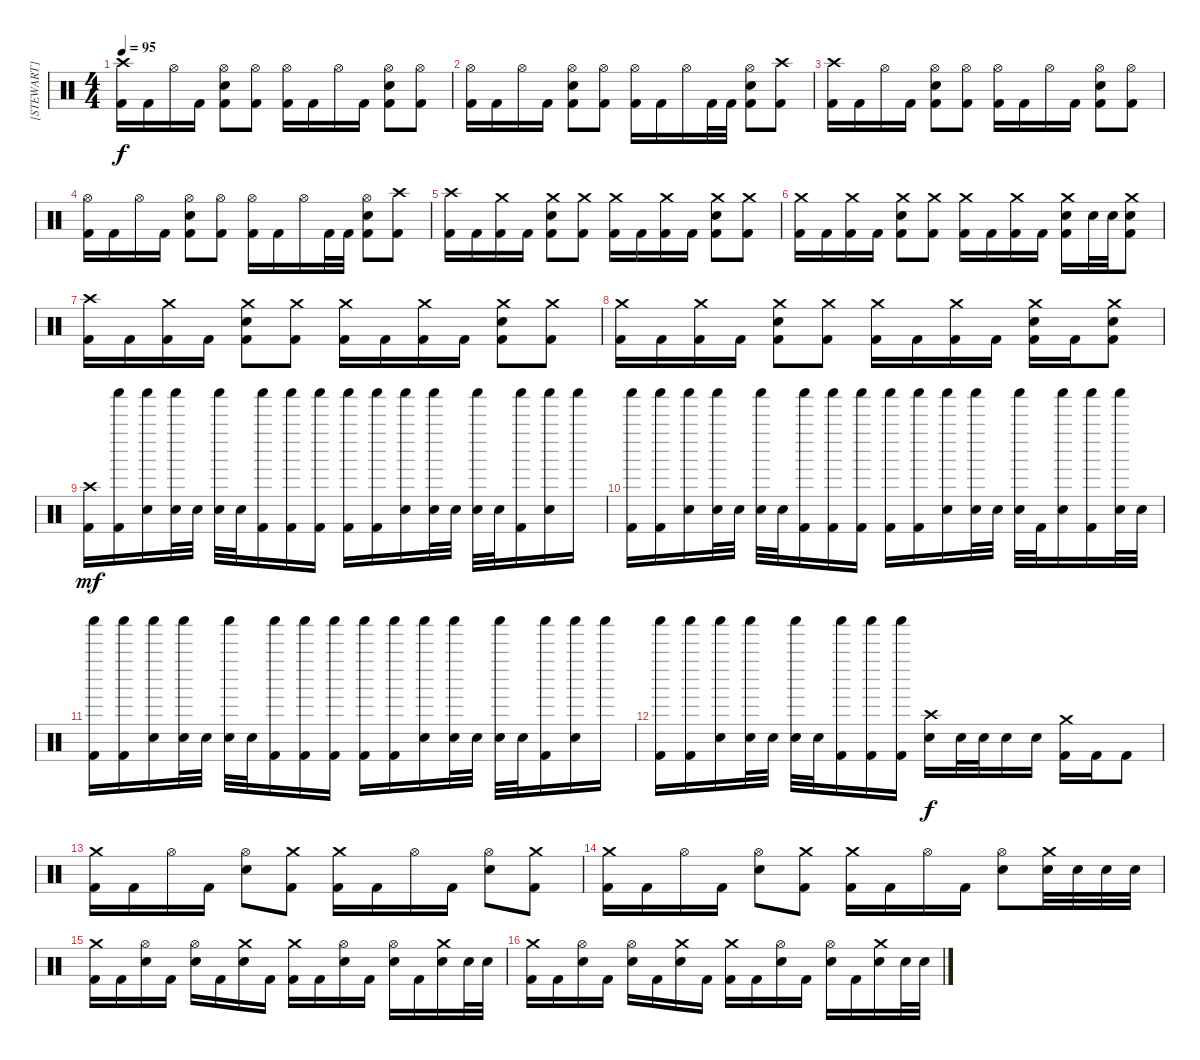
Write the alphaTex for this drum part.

\track ("[STEWART]" "[STEWART]") {instrument percussion}
\staff {score}
\articulation defaults
\ts (4 4)
\tempo 95
\clef neutral
\ks c
("Crash high (hit)" "Kick (hit) 2").16{dy f} "Kick (hit) 2".16 "Hi-Hat (open)".16 "Kick (hit) 2".16 ("Hi-Hat (open)" "Electric Snare (hit)" "Kick (hit) 2").8 ("Hi-Hat (open)" "Kick (hit) 2").8 ("Hi-Hat (open)" "Kick (hit) 2").16 "Kick (hit) 2".16 "Hi-Hat (open)".16 "Kick (hit) 2".16 ("Hi-Hat (open)" "Electric Snare (hit)" "Kick (hit) 2").8 ("Hi-Hat (open)" "Kick (hit) 2").8 |
("Hi-Hat (open)" "Kick (hit) 2").16 "Kick (hit) 2".16 "Hi-Hat (open)".16 "Kick (hit) 2".16 ("Hi-Hat (open)" "Electric Snare (hit)" "Kick (hit) 2").8 ("Hi-Hat (open)" "Kick (hit) 2").8 ("Hi-Hat (open)" "Kick (hit) 2").16 "Kick (hit) 2".16 "Hi-Hat (open)".16 "Kick (hit) 2".32 "Kick (hit) 2".32 ("Hi-Hat (open)" "Electric Snare (hit)" "Kick (hit) 2").8 ("Crash high (hit)" "Kick (hit) 2").8 |
("Crash high (hit)" "Kick (hit) 2").16 "Kick (hit) 2".16 "Hi-Hat (open)".16 "Kick (hit) 2".16 ("Hi-Hat (open)" "Electric Snare (hit)" "Kick (hit) 2").8 ("Hi-Hat (open)" "Kick (hit) 2").8 ("Hi-Hat (open)" "Kick (hit) 2").16 "Kick (hit) 2".16 "Hi-Hat (open)".16 "Kick (hit) 2".16 ("Hi-Hat (open)" "Electric Snare (hit)" "Kick (hit) 2").8 ("Hi-Hat (open)" "Kick (hit) 2").8 |
("Hi-Hat (open)" "Kick (hit) 2").16 "Kick (hit) 2".16 "Hi-Hat (open)".16 "Kick (hit) 2".16 ("Hi-Hat (open)" "Electric Snare (hit)" "Kick (hit) 2").8 ("Hi-Hat (open)" "Kick (hit) 2").8 ("Hi-Hat (open)" "Kick (hit) 2").16 "Kick (hit) 2".16 "Hi-Hat (open)".16 "Kick (hit) 2".32 "Kick (hit) 2".32 ("Hi-Hat (open)" "Electric Snare (hit)" "Kick (hit) 2").8 ("Crash high (hit)" "Kick (hit) 2").8 |
("Crash high (hit)" "Kick (hit) 2").16 "Kick (hit) 2".16 ("Crash medium (hit)" "Kick (hit) 2").16 "Kick (hit) 2".16 ("Crash medium (hit)" "Electric Snare (hit)" "Kick (hit) 2").8 ("Crash medium (hit)" "Kick (hit) 2").8 ("Crash medium (hit)" "Kick (hit) 2").16 "Kick (hit) 2".16 ("Crash medium (hit)" "Kick (hit) 2").16 "Kick (hit) 2".16 ("Crash medium (hit)" "Electric Snare (hit)" "Kick (hit) 2").8 ("Crash medium (hit)" "Kick (hit) 2").8 |
("Crash medium (hit)" "Kick (hit) 2").16 "Kick (hit) 2".16 ("Crash medium (hit)" "Kick (hit) 2").16 "Kick (hit) 2".16 ("Crash medium (hit)" "Electric Snare (hit)" "Kick (hit) 2").8 ("Crash medium (hit)" "Kick (hit) 2").8 ("Crash medium (hit)" "Kick (hit) 2").16 "Kick (hit) 2".16 ("Crash medium (hit)" "Kick (hit) 2").16 "Kick (hit) 2".16 ("Crash medium (hit)" "Electric Snare (hit)" "Kick (hit) 2").16 "Electric Snare (hit)".32 "Electric Snare (hit)".32 ("Crash medium (hit)" "Electric Snare (hit)" "Kick (hit) 2").8 |
("Crash high (hit)" "Kick (hit) 2").16 "Kick (hit) 2".16 ("Crash medium (hit)" "Kick (hit) 2").16 "Kick (hit) 2".16 ("Crash medium (hit)" "Electric Snare (hit)" "Kick (hit) 2").8 ("Crash medium (hit)" "Kick (hit) 2").8 ("Crash medium (hit)" "Kick (hit) 2").16 "Kick (hit) 2".16 ("Crash medium (hit)" "Kick (hit) 2").16 "Kick (hit) 2".16 ("Crash medium (hit)" "Electric Snare (hit)" "Kick (hit) 2").8 ("Crash medium (hit)" "Kick (hit) 2").8 |
("Crash medium (hit)" "Kick (hit) 2").16 "Kick (hit) 2".16 ("Crash medium (hit)" "Kick (hit) 2").16 "Kick (hit) 2".16 ("Crash medium (hit)" "Electric Snare (hit)" "Kick (hit) 2").8 ("Crash medium (hit)" "Kick (hit) 2").8 ("Crash medium (hit)" "Kick (hit) 2").16 "Kick (hit) 2".16 ("Crash medium (hit)" "Kick (hit) 2").16 "Kick (hit) 2".16 ("Crash medium (hit)" "Electric Snare (hit)" "Kick (hit) 2").16 "Kick (hit) 2".16 ("Crash medium (hit)" "Electric Snare (hit)" "Kick (hit) 2").8 |
("Crash high (hit)" "Kick (hit) 2").16{dy mf} ("Shaker (hit)" "Kick (hit) 2").16 ("Shaker (hit)" "Electric Snare (hit)").16 ("Shaker (hit)" "Electric Snare (hit)").32 "Electric Snare (hit)".32 ("Shaker (hit)" "Electric Snare (hit)").32 "Electric Snare (hit)".32 ("Shaker (hit)" "Kick (hit) 2").16 ("Shaker (hit)" "Kick (hit) 2").16 ("Shaker (hit)" "Kick (hit) 2").16 ("Shaker (hit)" "Kick (hit) 2").16 ("Shaker (hit)" "Kick (hit) 2").16 ("Shaker (hit)" "Electric Snare (hit)").16 ("Shaker (hit)" "Electric Snare (hit)").32 "Electric Snare (hit)".32 ("Shaker (hit)" "Electric Snare (hit)").32 "Electric Snare (hit)".32 ("Shaker (hit)" "Kick (hit) 2").16 ("Shaker (hit)" "Electric Snare (hit)").16 "Shaker (hit)".16 |
("Shaker (hit)" "Kick (hit) 2").16 ("Shaker (hit)" "Kick (hit) 2").16 ("Shaker (hit)" "Electric Snare (hit)").16 ("Shaker (hit)" "Electric Snare (hit)").32 "Electric Snare (hit)".32 ("Shaker (hit)" "Electric Snare (hit)").32 "Electric Snare (hit)".32 ("Shaker (hit)" "Kick (hit) 2").16 ("Shaker (hit)" "Kick (hit) 2").16 ("Shaker (hit)" "Kick (hit) 2").16 ("Shaker (hit)" "Kick (hit) 2").16 ("Shaker (hit)" "Kick (hit) 2").16 ("Shaker (hit)" "Electric Snare (hit)").16 ("Shaker (hit)" "Electric Snare (hit)").32 "Electric Snare (hit)".32 ("Shaker (hit)" "Electric Snare (hit)").32 "Kick (hit) 2".32 ("Shaker (hit)" "Electric Snare (hit)").16 ("Shaker (hit)" "Kick (hit) 2").16 ("Shaker (hit)" "Electric Snare (hit)").32 "Electric Snare (hit)".32 |
("Shaker (hit)" "Kick (hit) 2").16 ("Shaker (hit)" "Kick (hit) 2").16 ("Shaker (hit)" "Electric Snare (hit)").16 ("Shaker (hit)" "Electric Snare (hit)").32 "Electric Snare (hit)".32 ("Shaker (hit)" "Electric Snare (hit)").32 "Electric Snare (hit)".32 ("Shaker (hit)" "Kick (hit) 2").16 ("Shaker (hit)" "Kick (hit) 2").16 ("Shaker (hit)" "Kick (hit) 2").16 ("Shaker (hit)" "Kick (hit) 2").16 ("Shaker (hit)" "Kick (hit) 2").16 ("Shaker (hit)" "Electric Snare (hit)").16 ("Shaker (hit)" "Electric Snare (hit)").32 "Electric Snare (hit)".32 ("Shaker (hit)" "Electric Snare (hit)").32 "Electric Snare (hit)".32 ("Shaker (hit)" "Kick (hit) 2").16 ("Shaker (hit)" "Electric Snare (hit)").16 "Shaker (hit)".16 |
("Shaker (hit)" "Kick (hit) 2").16 ("Shaker (hit)" "Kick (hit) 2").16 ("Shaker (hit)" "Electric Snare (hit)").16 ("Shaker (hit)" "Electric Snare (hit)").32 "Electric Snare (hit)".32 ("Shaker (hit)" "Electric Snare (hit)").32 "Electric Snare (hit)".32 ("Shaker (hit)" "Kick (hit) 2").16 ("Shaker (hit)" "Kick (hit) 2").16 ("Shaker (hit)" "Kick (hit) 2").16 ("Crash high (hit)" "Electric Snare (hit)").16{dy f} "Electric Snare (hit)".32 "Electric Snare (hit)".32 "Electric Snare (hit)".16 "Electric Snare (hit)".16 ("Crash medium (hit)" "Kick (hit) 2").16 "Kick (hit) 2".16 "Kick (hit) 2".8 |
("Crash medium (hit)" "Kick (hit) 2").16 "Kick (hit) 2".16 "Hi-Hat (open)".16 "Kick (hit) 2".16 ("Hi-Hat (open)" "Electric Snare (hit)").8 ("Crash medium (hit)" "Kick (hit) 2").8 ("Crash medium (hit)" "Kick (hit) 2").16 "Kick (hit) 2".16 "Hi-Hat (open)".16 "Kick (hit) 2".16 ("Hi-Hat (open)" "Electric Snare (hit)").8 ("Crash medium (hit)" "Kick (hit) 2").8 |
("Crash medium (hit)" "Kick (hit) 2").16 "Kick (hit) 2".16 "Hi-Hat (open)".16 "Kick (hit) 2".16 ("Hi-Hat (open)" "Electric Snare (hit)").8 ("Crash medium (hit)" "Kick (hit) 2").8 ("Crash medium (hit)" "Kick (hit) 2").16 "Kick (hit) 2".16 "Hi-Hat (open)".16 "Kick (hit) 2".16 ("Hi-Hat (open)" "Electric Snare (hit)").8 ("Crash medium (hit)" "Electric Snare (hit)").32 "Electric Snare (hit)".32 "Electric Snare (hit)".32 "Electric Snare (hit)".32 |
("Crash medium (hit)" "Kick (hit) 2").16 "Kick (hit) 2".16 ("Hi-Hat (open)" "Electric Snare (hit)").16 "Kick (hit) 2".16 ("Hi-Hat (open)" "Electric Snare (hit)").16 "Kick (hit) 2".16 ("Crash medium (hit)" "Electric Snare (hit)").16 "Kick (hit) 2".16 ("Crash medium (hit)" "Kick (hit) 2").16 "Kick (hit) 2".16 ("Hi-Hat (open)" "Electric Snare (hit)").16 "Kick (hit) 2".16 ("Hi-Hat (open)" "Electric Snare (hit)").16 "Kick (hit) 2".16 ("Crash medium (hit)" "Electric Snare (hit)").16 "Electric Snare (hit)".32 "Electric Snare (hit)".32 |
("Crash medium (hit)" "Kick (hit) 2").16 "Kick (hit) 2".16 ("Hi-Hat (open)" "Electric Snare (hit)").16 "Kick (hit) 2".16 ("Hi-Hat (open)" "Electric Snare (hit)").16 "Kick (hit) 2".16 ("Crash medium (hit)" "Electric Snare (hit)").16 "Kick (hit) 2".16 ("Crash medium (hit)" "Kick (hit) 2").16 "Kick (hit) 2".16 ("Hi-Hat (open)" "Electric Snare (hit)").16 "Kick (hit) 2".16 ("Hi-Hat (open)" "Electric Snare (hit)").16 "Kick (hit) 2".16 ("Crash medium (hit)" "Electric Snare (hit)").16 "Electric Snare (hit)".32 "Electric Snare (hit)".32
